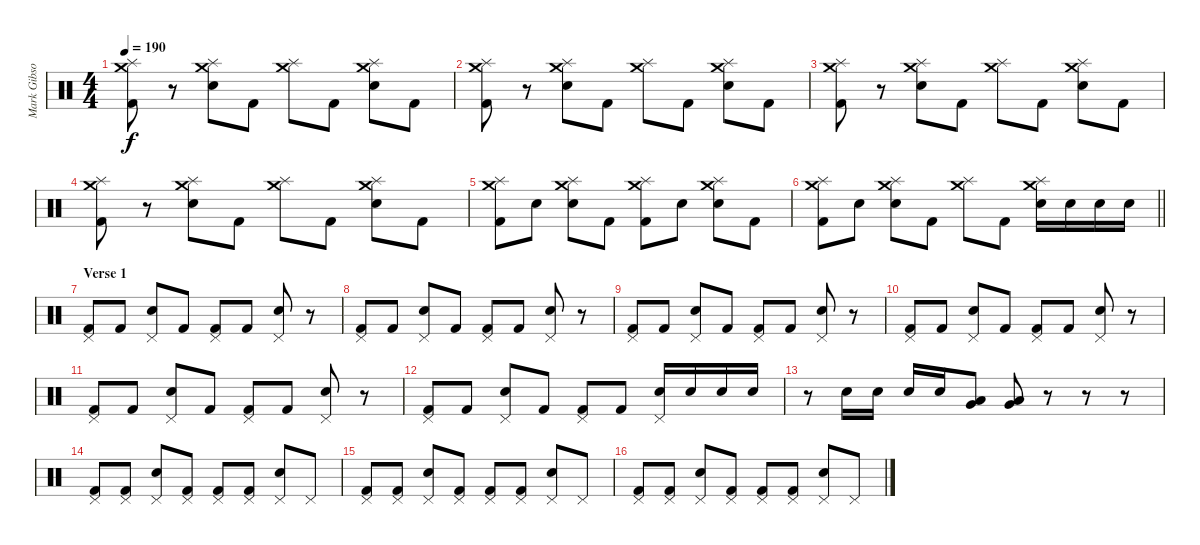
\track ("Mark Gibson" "Mark Gibso") {instrument percussion}
\staff {score}
\articulation defaults
\ts (4 4)
\tempo 190
\clef neutral
\ks c
("Crash medium (hit)" "Splash (hit)" "Kick (hit) 2").8{dy f} r.8 ("Crash medium (hit)" "Splash (hit)" "Electric Snare (hit)").8 "Kick (hit) 2".8 ("Crash medium (hit)" "Splash (hit)").8 "Kick (hit) 2".8 ("Crash medium (hit)" "Splash (hit)" "Electric Snare (hit)").8 "Kick (hit) 2".8 |
("Crash medium (hit)" "Splash (hit)" "Kick (hit) 2").8 r.8 ("Crash medium (hit)" "Splash (hit)" "Electric Snare (hit)").8 "Kick (hit) 2".8 ("Crash medium (hit)" "Splash (hit)").8 "Kick (hit) 2".8 ("Crash medium (hit)" "Splash (hit)" "Electric Snare (hit)").8 "Kick (hit) 2".8 |
("Crash medium (hit)" "Splash (hit)" "Kick (hit) 2").8 r.8 ("Crash medium (hit)" "Splash (hit)" "Electric Snare (hit)").8 "Kick (hit) 2".8 ("Crash medium (hit)" "Splash (hit)").8 "Kick (hit) 2".8 ("Crash medium (hit)" "Splash (hit)" "Electric Snare (hit)").8 "Kick (hit) 2".8 |
("Crash medium (hit)" "Splash (hit)" "Kick (hit) 2").8 r.8 ("Crash medium (hit)" "Splash (hit)" "Electric Snare (hit)").8 "Kick (hit) 2".8 ("Crash medium (hit)" "Splash (hit)").8 "Kick (hit) 2".8 ("Crash medium (hit)" "Splash (hit)" "Electric Snare (hit)").8 "Kick (hit) 2".8 |
("Crash medium (hit)" "Splash (hit)" "Kick (hit) 2").8 "Electric Snare (hit)".8 ("Crash medium (hit)" "Splash (hit)" "Electric Snare (hit)").8 "Kick (hit) 2".8 ("Crash medium (hit)" "Splash (hit)" "Kick (hit) 2").8 "Electric Snare (hit)".8 ("Crash medium (hit)" "Splash (hit)" "Electric Snare (hit)").8 "Kick (hit) 2".8 |
\barLineRight lightlight
("Crash medium (hit)" "Splash (hit)" "Kick (hit) 2").8 "Electric Snare (hit)".8 ("Crash medium (hit)" "Splash (hit)" "Electric Snare (hit)").8 "Kick (hit) 2".8 ("Crash medium (hit)" "Splash (hit)").8 "Kick (hit) 2".8 ("Crash medium (hit)" "Splash (hit)" "Electric Snare (hit)").16 "Electric Snare (hit)".16 "Electric Snare (hit)".16 "Electric Snare (hit)".16 |
\section ("" "Verse 1")
("Pedal Hi-Hat (hit)" "Kick (hit) 2").8 "Kick (hit) 2".8 ("Pedal Hi-Hat (hit)" "Electric Snare (hit)").8 "Kick (hit) 2".8 ("Pedal Hi-Hat (hit)" "Kick (hit) 2").8 "Kick (hit) 2".8 ("Pedal Hi-Hat (hit)" "Electric Snare (hit)").8 r.8 |
("Pedal Hi-Hat (hit)" "Kick (hit) 2").8 "Kick (hit) 2".8 ("Pedal Hi-Hat (hit)" "Electric Snare (hit)").8 "Kick (hit) 2".8 ("Pedal Hi-Hat (hit)" "Kick (hit) 2").8 "Kick (hit) 2".8 ("Pedal Hi-Hat (hit)" "Electric Snare (hit)").8 r.8 |
("Pedal Hi-Hat (hit)" "Kick (hit) 2").8 "Kick (hit) 2".8 ("Pedal Hi-Hat (hit)" "Electric Snare (hit)").8 "Kick (hit) 2".8 ("Pedal Hi-Hat (hit)" "Kick (hit) 2").8 "Kick (hit) 2".8 ("Pedal Hi-Hat (hit)" "Electric Snare (hit)").8 r.8 |
("Pedal Hi-Hat (hit)" "Kick (hit) 2").8 "Kick (hit) 2".8 ("Pedal Hi-Hat (hit)" "Electric Snare (hit)").8 "Kick (hit) 2".8 ("Pedal Hi-Hat (hit)" "Kick (hit) 2").8 "Kick (hit) 2".8 ("Pedal Hi-Hat (hit)" "Electric Snare (hit)").8 r.8 |
("Pedal Hi-Hat (hit)" "Kick (hit) 2").8 "Kick (hit) 2".8 ("Pedal Hi-Hat (hit)" "Electric Snare (hit)").8 "Kick (hit) 2".8 ("Pedal Hi-Hat (hit)" "Kick (hit) 2").8 "Kick (hit) 2".8 ("Pedal Hi-Hat (hit)" "Electric Snare (hit)").8 r.8 |
("Pedal Hi-Hat (hit)" "Kick (hit) 2").8 "Kick (hit) 2".8 ("Pedal Hi-Hat (hit)" "Electric Snare (hit)").8 "Kick (hit) 2".8 ("Pedal Hi-Hat (hit)" "Kick (hit) 2").8 "Kick (hit) 2".8 ("Pedal Hi-Hat (hit)" "Electric Snare (hit)").16 "Electric Snare (hit)".16 "Electric Snare (hit)".16 "Electric Snare (hit)".16 |
r.8 "Electric Snare (hit)".16 "Electric Snare (hit)".16 "Electric Snare (hit)".16 "Electric Snare (hit)".16 ("Low Floor Tom (hit)" "Very Low Tom (hit)").8 ("Low Floor Tom (hit)" "Very Low Tom (hit)").8 r.8 r.8 r.8 |
("Pedal Hi-Hat (hit)" "Kick (hit) 2").8 ("Pedal Hi-Hat (hit)" "Kick (hit) 2").8 ("Pedal Hi-Hat (hit)" "Electric Snare (hit)").8 ("Pedal Hi-Hat (hit)" "Kick (hit) 2").8 ("Pedal Hi-Hat (hit)" "Kick (hit) 2").8 ("Pedal Hi-Hat (hit)" "Kick (hit) 2").8 ("Pedal Hi-Hat (hit)" "Electric Snare (hit)").8 "Pedal Hi-Hat (hit)".8 |
("Pedal Hi-Hat (hit)" "Kick (hit) 2").8 ("Pedal Hi-Hat (hit)" "Kick (hit) 2").8 ("Pedal Hi-Hat (hit)" "Electric Snare (hit)").8 ("Pedal Hi-Hat (hit)" "Kick (hit) 2").8 ("Pedal Hi-Hat (hit)" "Kick (hit) 2").8 ("Pedal Hi-Hat (hit)" "Kick (hit) 2").8 ("Pedal Hi-Hat (hit)" "Electric Snare (hit)").8 "Pedal Hi-Hat (hit)".8 |
("Pedal Hi-Hat (hit)" "Kick (hit) 2").8 ("Pedal Hi-Hat (hit)" "Kick (hit) 2").8 ("Pedal Hi-Hat (hit)" "Electric Snare (hit)").8 ("Pedal Hi-Hat (hit)" "Kick (hit) 2").8 ("Pedal Hi-Hat (hit)" "Kick (hit) 2").8 ("Pedal Hi-Hat (hit)" "Kick (hit) 2").8 ("Pedal Hi-Hat (hit)" "Electric Snare (hit)").8 "Pedal Hi-Hat (hit)".8
